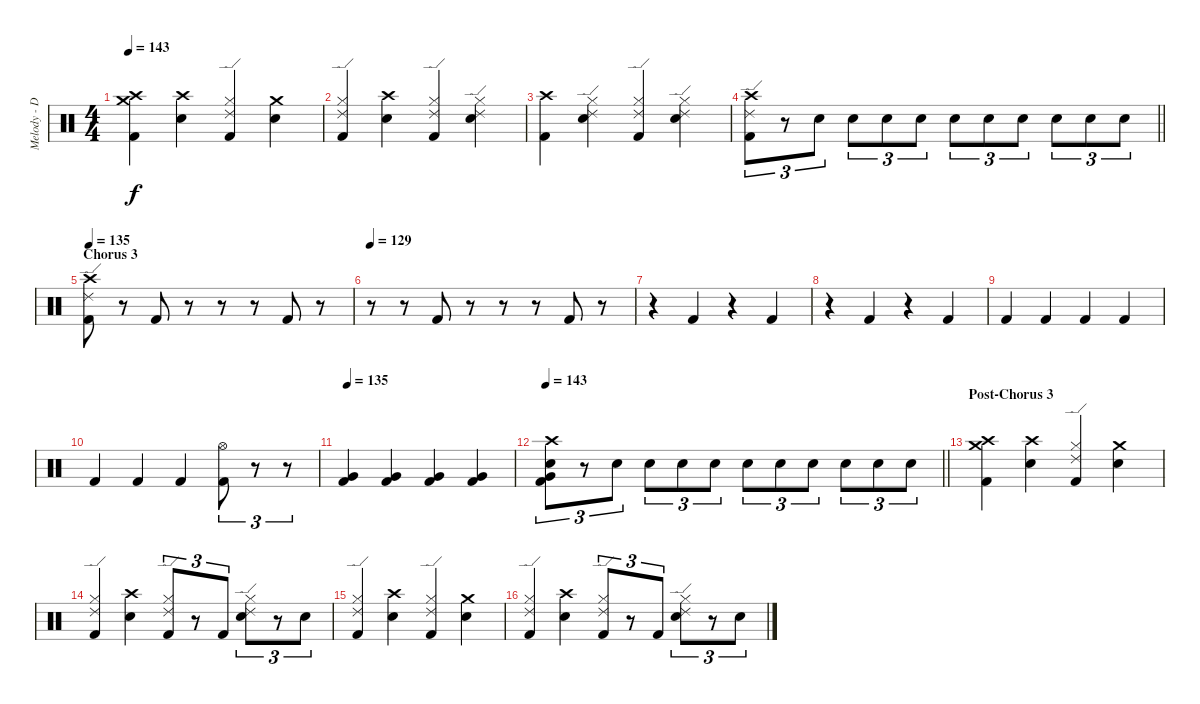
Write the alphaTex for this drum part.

\track ("Melody - Drums" "Melody - D") {instrument percussion}
\staff {score}
\articulation defaults
\ts (4 4)
\tempo 143
\clef neutral
\ks c
("Crash medium (hit)" "Crash high (hit)" "Kick (hit) 2").4{dy f} ("Crash high (hit)" "Electric Snare (hit)").4 ("Hi-Hat (closed)" "Ride (edge) 2" "Kick (hit) 2").4 ("Crash medium (hit)" "Electric Snare (hit)").4 |
("Hi-Hat (closed)" "Ride (edge) 2" "Kick (hit) 2").4 ("Crash high (hit)" "Electric Snare (hit)").4 ("Hi-Hat (closed)" "Ride (edge) 2" "Kick (hit) 2").4 ("Hi-Hat (closed)" "Ride (edge) 2" "Electric Snare (hit)").4 |
("Crash high (hit)" "Kick (hit) 2").4 ("Hi-Hat (closed)" "Ride (edge) 2" "Electric Snare (hit)").4 ("Hi-Hat (closed)" "Ride (edge) 2" "Kick (hit) 2").4 ("Hi-Hat (closed)" "Ride (edge) 2" "Electric Snare (hit)").4 |
\barLineRight lightlight
("Crash high (hit)" "Ride (edge) 2" "Kick (hit) 2").8{tu (3 2)} r.8{tu (3 2)} "Electric Snare (hit)".8{tu (3 2)} "Electric Snare (hit)".8{tu (3 2)} "Electric Snare (hit)".8{tu (3 2)} "Electric Snare (hit)".8{tu (3 2)} "Electric Snare (hit)".8{tu (3 2)} "Electric Snare (hit)".8{tu (3 2)} "Electric Snare (hit)".8{tu (3 2)} "Electric Snare (hit)".8{tu (3 2)} "Electric Snare (hit)".8{tu (3 2)} "Electric Snare (hit)".8{tu (3 2)} |
\section ("" "Chorus 3")
\tempo 135
("Crash high (hit)" "Ride (edge) 2" "Kick (hit) 2").8 r.8 "Kick (hit) 2".8 r.8 r.8 r.8 "Kick (hit) 2".8 r.8 |
\tempo 129
r.8 r.8 "Kick (hit) 2".8 r.8 r.8 r.8 "Kick (hit) 2".8 r.8 |
r.4 "Kick (hit) 2".4 r.4 "Kick (hit) 2".4 |
r.4 "Kick (hit) 2".4 r.4 "Kick (hit) 2".4 |
"Kick (hit) 2".4 "Kick (hit) 2".4 "Kick (hit) 2".4 "Kick (hit) 2".4 |
"Kick (hit) 2".4 "Kick (hit) 2".4 "Kick (hit) 2".4 ("Hi-Hat (open)" "Kick (hit) 2").8{tu (3 2)} r.8{tu (3 2)} r.8{tu (3 2)} |
\tempo 135
("Very Low Tom (hit)" "Kick (hit) 2").4 ("Very Low Tom (hit)" "Kick (hit) 2").4 ("Very Low Tom (hit)" "Kick (hit) 2").4 ("Very Low Tom (hit)" "Kick (hit) 2").4 |
\tempo 143
\barLineRight lightlight
("Crash high (hit)" "Electric Snare (hit)" "Very Low Tom (hit)" "Kick (hit) 2").8{tu (3 2)} r.8{tu (3 2)} "Electric Snare (hit)".8{tu (3 2)} "Electric Snare (hit)".8{tu (3 2)} "Electric Snare (hit)".8{tu (3 2)} "Electric Snare (hit)".8{tu (3 2)} "Electric Snare (hit)".8{tu (3 2)} "Electric Snare (hit)".8{tu (3 2)} "Electric Snare (hit)".8{tu (3 2)} "Electric Snare (hit)".8{tu (3 2)} "Electric Snare (hit)".8{tu (3 2)} "Electric Snare (hit)".8{tu (3 2)} |
\section ("" "Post-Chorus 3")
("Crash medium (hit)" "Crash high (hit)" "Kick (hit) 2").4 ("Crash high (hit)" "Electric Snare (hit)").4 ("Hi-Hat (closed)" "Ride (edge) 2" "Kick (hit) 2").4 ("Crash medium (hit)" "Electric Snare (hit)").4 |
("Hi-Hat (closed)" "Ride (edge) 2" "Kick (hit) 2").4 ("Crash high (hit)" "Electric Snare (hit)").4 ("Hi-Hat (closed)" "Ride (edge) 2" "Kick (hit) 2").8{tu (3 2)} r.8{tu (3 2)} "Kick (hit) 2".8{tu (3 2)} ("Hi-Hat (closed)" "Ride (edge) 2" "Electric Snare (hit)").8{tu (3 2)} r.8{tu (3 2)} "Electric Snare (hit)".8{tu (3 2)} |
("Hi-Hat (closed)" "Ride (edge) 2" "Kick (hit) 2").4 ("Crash high (hit)" "Electric Snare (hit)").4 ("Hi-Hat (closed)" "Ride (edge) 2" "Kick (hit) 2").4 ("Crash medium (hit)" "Electric Snare (hit)").4 |
("Hi-Hat (closed)" "Ride (edge) 2" "Kick (hit) 2").4 ("Crash high (hit)" "Electric Snare (hit)").4 ("Hi-Hat (closed)" "Ride (edge) 2" "Kick (hit) 2").8{tu (3 2)} r.8{tu (3 2)} "Kick (hit) 2".8{tu (3 2)} ("Hi-Hat (closed)" "Ride (edge) 2" "Electric Snare (hit)").8{tu (3 2)} r.8{tu (3 2)} "Electric Snare (hit)".8{tu (3 2)}
